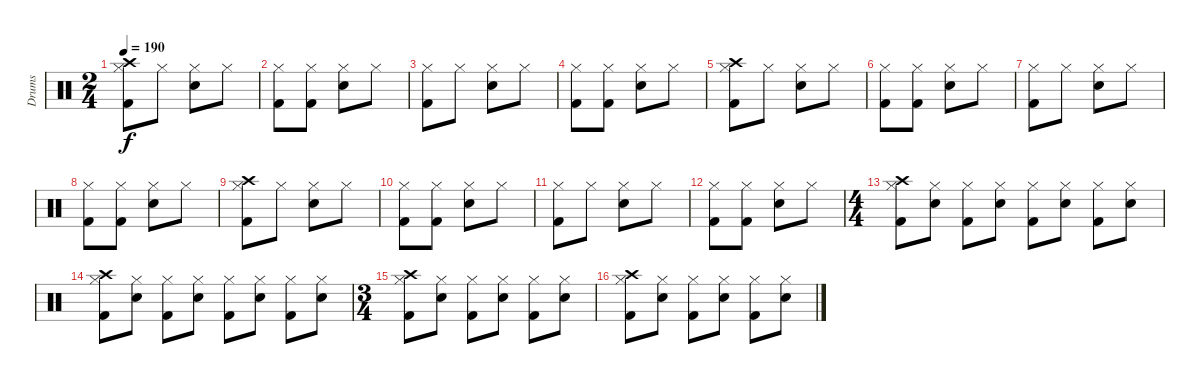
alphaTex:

\track ("Drums" "Drums") {instrument percussion}
\staff {score}
\articulation defaults
\ts (2 4)
\tempo 190
\clef neutral
\ks c
("Kick (hit) 2" "Hi-Hat (closed)" "Crash high (hit)").8{dy f} "Hi-Hat (closed)".8 ("Snare (hit) 2" "Hi-Hat (closed)").8 "Hi-Hat (closed)".8 |
("Kick (hit) 2" "Hi-Hat (closed)").8 ("Kick (hit) 2" "Hi-Hat (closed)").8 ("Snare (hit) 2" "Hi-Hat (closed)").8 "Hi-Hat (closed)".8 |
("Kick (hit) 2" "Hi-Hat (closed)").8 "Hi-Hat (closed)".8 ("Snare (hit) 2" "Hi-Hat (closed)").8 "Hi-Hat (closed)".8 |
("Kick (hit) 2" "Hi-Hat (closed)").8 ("Kick (hit) 2" "Hi-Hat (closed)").8 ("Snare (hit) 2" "Hi-Hat (closed)").8 "Hi-Hat (closed)".8 |
("Kick (hit) 2" "Hi-Hat (closed)" "Crash high (hit)").8 "Hi-Hat (closed)".8 ("Snare (hit) 2" "Hi-Hat (closed)").8 "Hi-Hat (closed)".8 |
("Kick (hit) 2" "Hi-Hat (closed)").8 ("Kick (hit) 2" "Hi-Hat (closed)").8 ("Snare (hit) 2" "Hi-Hat (closed)").8 "Hi-Hat (closed)".8 |
("Kick (hit) 2" "Hi-Hat (closed)").8 "Hi-Hat (closed)".8 ("Snare (hit) 2" "Hi-Hat (closed)").8 "Hi-Hat (closed)".8 |
("Kick (hit) 2" "Hi-Hat (closed)").8 ("Kick (hit) 2" "Hi-Hat (closed)").8 ("Snare (hit) 2" "Hi-Hat (closed)").8 "Hi-Hat (closed)".8 |
("Kick (hit) 2" "Hi-Hat (closed)" "Crash high (hit)").8 "Hi-Hat (closed)".8 ("Snare (hit) 2" "Hi-Hat (closed)").8 "Hi-Hat (closed)".8 |
("Kick (hit) 2" "Hi-Hat (closed)").8 ("Kick (hit) 2" "Hi-Hat (closed)").8 ("Snare (hit) 2" "Hi-Hat (closed)").8 "Hi-Hat (closed)".8 |
("Kick (hit) 2" "Hi-Hat (closed)").8 "Hi-Hat (closed)".8 ("Snare (hit) 2" "Hi-Hat (closed)").8 "Hi-Hat (closed)".8 |
("Kick (hit) 2" "Hi-Hat (closed)").8 ("Kick (hit) 2" "Hi-Hat (closed)").8 ("Snare (hit) 2" "Hi-Hat (closed)").8 "Hi-Hat (closed)".8 |
\ts (4 4)
("Kick (hit) 2" "Hi-Hat (closed)" "Crash high (hit)").8 ("Snare (hit) 2" "Hi-Hat (closed)").8 ("Kick (hit) 2" "Hi-Hat (closed)").8 ("Snare (hit) 2" "Hi-Hat (closed)").8 ("Kick (hit) 2" "Hi-Hat (closed)").8 ("Snare (hit) 2" "Hi-Hat (closed)").8 ("Kick (hit) 2" "Hi-Hat (closed)").8 ("Snare (hit) 2" "Hi-Hat (closed)").8 |
("Kick (hit) 2" "Hi-Hat (closed)" "Crash high (hit)").8 ("Snare (hit) 2" "Hi-Hat (closed)").8 ("Kick (hit) 2" "Hi-Hat (closed)").8 ("Snare (hit) 2" "Hi-Hat (closed)").8 ("Kick (hit) 2" "Hi-Hat (closed)").8 ("Snare (hit) 2" "Hi-Hat (closed)").8 ("Kick (hit) 2" "Hi-Hat (closed)").8 ("Snare (hit) 2" "Hi-Hat (closed)").8 |
\ts (3 4)
("Kick (hit) 2" "Hi-Hat (closed)" "Crash high (hit)").8 ("Snare (hit) 2" "Hi-Hat (closed)").8 ("Kick (hit) 2" "Hi-Hat (closed)").8 ("Snare (hit) 2" "Hi-Hat (closed)").8 ("Kick (hit) 2" "Hi-Hat (closed)").8 ("Snare (hit) 2" "Hi-Hat (closed)").8 |
("Kick (hit) 2" "Hi-Hat (closed)" "Crash high (hit)").8 ("Snare (hit) 2" "Hi-Hat (closed)").8 ("Kick (hit) 2" "Hi-Hat (closed)").8 ("Snare (hit) 2" "Hi-Hat (closed)").8 ("Kick (hit) 2" "Hi-Hat (closed)").8 ("Snare (hit) 2" "Hi-Hat (closed)").8
